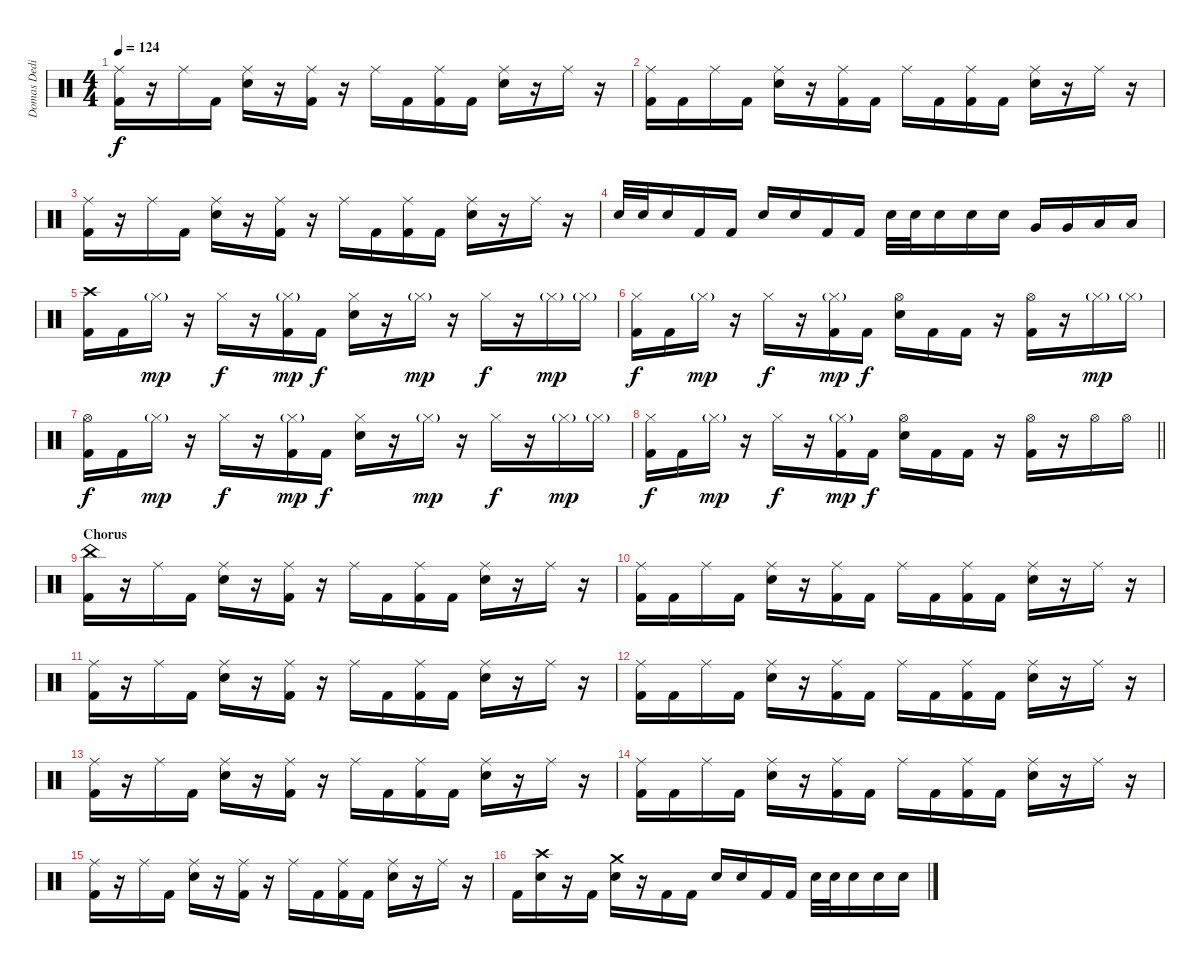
\track ("Domas Dedinas" "Domas Dedi") {instrument percussion}
\staff {score}
\articulation defaults
\ts (4 4)
\tempo 124
\clef neutral
\ks c
("Ride (middle)" "Kick (hit) 2").16{dy f} r.16 "Ride (middle)".16 "Kick (hit) 2".16 ("Ride (middle)" "Snare (hit) 2").16 r.16 ("Ride (middle)" "Kick (hit) 2").16 r.16 "Ride (middle)".16 "Kick (hit) 2".16 ("Ride (middle)" "Kick (hit) 2").16 "Kick (hit) 2".16 ("Ride (middle)" "Snare (hit) 2").16 r.16 "Ride (middle)".16 r.16 |
("Ride (middle)" "Kick (hit) 2").16 "Kick (hit) 2".16 "Ride (middle)".16 "Kick (hit) 2".16 ("Ride (middle)" "Snare (hit) 2").16 r.16 ("Ride (middle)" "Kick (hit) 2").16 "Kick (hit) 2".16 "Ride (middle)".16 "Kick (hit) 2".16 ("Ride (middle)" "Kick (hit) 2").16 "Kick (hit) 2".16 ("Ride (middle)" "Snare (hit) 2").16 r.16 "Ride (middle)".16 r.16 |
("Ride (middle)" "Kick (hit) 2").16 r.16 "Ride (middle)".16 "Kick (hit) 2".16 ("Ride (middle)" "Snare (hit) 2").16 r.16 ("Ride (middle)" "Kick (hit) 2").16 r.16 "Ride (middle)".16 "Kick (hit) 2".16 ("Ride (middle)" "Kick (hit) 2").16 "Kick (hit) 2".16 ("Ride (middle)" "Snare (hit) 2").16 r.16 "Ride (middle)".16 r.16 |
"Snare (hit) 2".32 "Snare (hit) 2".32 "Snare (hit) 2".16 "Kick (hit) 2".16 "Kick (hit) 2".16 "Snare (hit) 2".16 "Snare (hit) 2".16 "Kick (hit) 2".16 "Kick (hit) 2".16 "Snare (hit) 2".32 "Snare (hit) 2".32 "Snare (hit) 2".16 "Snare (hit) 2".16 "Snare (hit) 2".16 "Very Low Tom (hit)".16 "Very Low Tom (hit)".16 "Low Floor Tom (hit)".16 "Low Floor Tom (hit)".16 |
("Crash high (hit)" "Kick (hit) 2").16 "Kick (hit) 2".16 "Hi-Hat (closed)"{g}.16{dy mp} r.16 "Hi-Hat (closed)".16{dy f} r.16 ("Hi-Hat (closed)"{g} "Kick (hit) 2").16{dy mp} "Kick (hit) 2".16{dy f} ("Hi-Hat (closed)" "Snare (hit) 2").16 r.16 "Hi-Hat (closed)"{g}.16{dy mp} r.16 "Hi-Hat (closed)".16{dy f} r.16 "Hi-Hat (closed)"{g}.16{dy mp} "Hi-Hat (closed)"{g}.16 |
("Hi-Hat (closed)" "Kick (hit) 2").16{dy f} "Kick (hit) 2".16 "Hi-Hat (closed)"{g}.16{dy mp} r.16 "Hi-Hat (closed)".16{dy f} r.16 ("Hi-Hat (closed)"{g} "Kick (hit) 2").16{dy mp} "Kick (hit) 2".16{dy f} ("Hi-Hat (open)" "Snare (hit) 2").16 "Kick (hit) 2".16 "Kick (hit) 2".16 r.16 ("Hi-Hat (open)" "Kick (hit) 2").16 r.16 "Hi-Hat (closed)"{g}.16{dy mp} "Hi-Hat (closed)"{g}.16 |
("Hi-Hat (open)" "Kick (hit) 2").16{dy f} "Kick (hit) 2".16 "Hi-Hat (closed)"{g}.16{dy mp} r.16 "Hi-Hat (closed)".16{dy f} r.16 ("Hi-Hat (closed)"{g} "Kick (hit) 2").16{dy mp} "Kick (hit) 2".16{dy f} ("Hi-Hat (closed)" "Snare (hit) 2").16 r.16 "Hi-Hat (closed)"{g}.16{dy mp} r.16 "Hi-Hat (closed)".16{dy f} r.16 "Hi-Hat (closed)"{g}.16{dy mp} "Hi-Hat (closed)"{g}.16 |
\barLineRight lightlight
("Hi-Hat (closed)" "Kick (hit) 2").16{dy f} "Kick (hit) 2".16 "Hi-Hat (closed)"{g}.16{dy mp} r.16 "Hi-Hat (closed)".16{dy f} r.16 ("Hi-Hat (closed)"{g} "Kick (hit) 2").16{dy mp} "Kick (hit) 2".16{dy f} ("Hi-Hat (open)" "Snare (hit) 2").16 "Kick (hit) 2".16 "Kick (hit) 2".16 r.16 ("Hi-Hat (open)" "Kick (hit) 2").16 r.16 "Hi-Hat (open)".16 "Hi-Hat (open)".16 |
\section ("" "Chorus")
("China (hit)" "Kick (hit) 2").16 r.16 "Ride (middle)".16 "Kick (hit) 2".16 ("Ride (middle)" "Snare (hit) 2").16 r.16 ("Ride (middle)" "Kick (hit) 2").16 r.16 "Ride (middle)".16 "Kick (hit) 2".16 ("Ride (middle)" "Kick (hit) 2").16 "Kick (hit) 2".16 ("Ride (middle)" "Snare (hit) 2").16 r.16 "Ride (middle)".16 r.16 |
("Ride (middle)" "Kick (hit) 2").16 "Kick (hit) 2".16 "Ride (middle)".16 "Kick (hit) 2".16 ("Ride (middle)" "Snare (hit) 2").16 r.16 ("Ride (middle)" "Kick (hit) 2").16 "Kick (hit) 2".16 "Ride (middle)".16 "Kick (hit) 2".16 ("Ride (middle)" "Kick (hit) 2").16 "Kick (hit) 2".16 ("Ride (middle)" "Snare (hit) 2").16 r.16 "Ride (middle)".16 r.16 |
("Ride (middle)" "Kick (hit) 2").16 r.16 "Ride (middle)".16 "Kick (hit) 2".16 ("Ride (middle)" "Snare (hit) 2").16 r.16 ("Ride (middle)" "Kick (hit) 2").16 r.16 "Ride (middle)".16 "Kick (hit) 2".16 ("Ride (middle)" "Kick (hit) 2").16 "Kick (hit) 2".16 ("Ride (middle)" "Snare (hit) 2").16 r.16 "Ride (middle)".16 r.16 |
("Ride (middle)" "Kick (hit) 2").16 "Kick (hit) 2".16 "Ride (middle)".16 "Kick (hit) 2".16 ("Ride (middle)" "Snare (hit) 2").16 r.16 ("Ride (middle)" "Kick (hit) 2").16 "Kick (hit) 2".16 "Ride (middle)".16 "Kick (hit) 2".16 ("Ride (middle)" "Kick (hit) 2").16 "Kick (hit) 2".16 ("Ride (middle)" "Snare (hit) 2").16 r.16 "Ride (middle)".16 r.16 |
("Ride (middle)" "Kick (hit) 2").16 r.16 "Ride (middle)".16 "Kick (hit) 2".16 ("Ride (middle)" "Snare (hit) 2").16 r.16 ("Ride (middle)" "Kick (hit) 2").16 r.16 "Ride (middle)".16 "Kick (hit) 2".16 ("Ride (middle)" "Kick (hit) 2").16 "Kick (hit) 2".16 ("Ride (middle)" "Snare (hit) 2").16 r.16 "Ride (middle)".16 r.16 |
("Ride (middle)" "Kick (hit) 2").16 "Kick (hit) 2".16 "Ride (middle)".16 "Kick (hit) 2".16 ("Ride (middle)" "Snare (hit) 2").16 r.16 ("Ride (middle)" "Kick (hit) 2").16 "Kick (hit) 2".16 "Ride (middle)".16 "Kick (hit) 2".16 ("Ride (middle)" "Kick (hit) 2").16 "Kick (hit) 2".16 ("Ride (middle)" "Snare (hit) 2").16 r.16 "Ride (middle)".16 r.16 |
("Ride (middle)" "Kick (hit) 2").16 r.16 "Ride (middle)".16 "Kick (hit) 2".16 ("Ride (middle)" "Snare (hit) 2").16 r.16 ("Ride (middle)" "Kick (hit) 2").16 r.16 "Ride (middle)".16 "Kick (hit) 2".16 ("Ride (middle)" "Kick (hit) 2").16 "Kick (hit) 2".16 ("Ride (middle)" "Snare (hit) 2").16 r.16 "Ride (middle)".16 r.16 |
"Kick (hit) 2".16 ("Crash high (hit)" "Snare (hit) 2").16 r.16 "Kick (hit) 2".16 ("Crash medium (hit)" "Snare (hit) 2").16 r.16 "Kick (hit) 2".16 "Kick (hit) 2".16 "Snare (hit) 2".16 "Snare (hit) 2".16 "Kick (hit) 2".16 "Kick (hit) 2".16 "Snare (hit) 2".32 "Snare (hit) 2".32 "Snare (hit) 2".16 "Snare (hit) 2".16 "Snare (hit) 2".16
